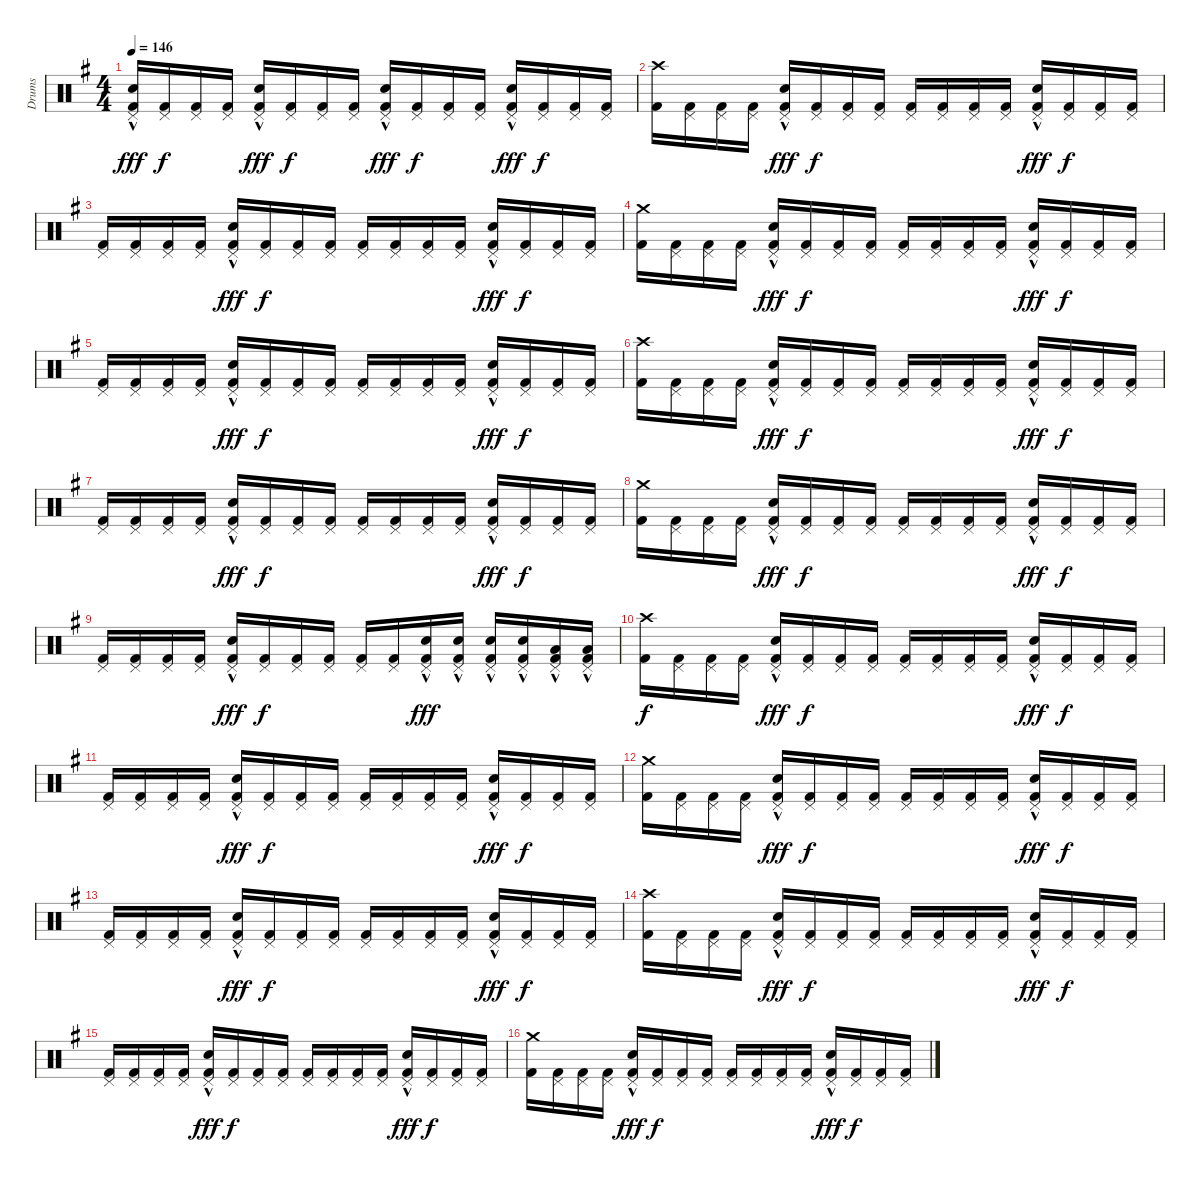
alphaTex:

\track ("Drums" "Drums") {instrument percussion}
\staff {score}
\articulation defaults
\ts (4 4)
\tempo 146
\clef neutral
\ks eminor
("Pedal Hi-Hat (hit)"{hac} "Snare (hit) 2" "Kick (hit) 2").16{dy fff} ("Pedal Hi-Hat (hit)" "Kick (hit) 2").16{dy f} ("Pedal Hi-Hat (hit)" "Kick (hit) 2").16 ("Pedal Hi-Hat (hit)" "Kick (hit) 2").16 ("Pedal Hi-Hat (hit)"{hac} "Snare (hit) 2" "Kick (hit) 2").16{dy fff} ("Pedal Hi-Hat (hit)" "Kick (hit) 2").16{dy f} ("Pedal Hi-Hat (hit)" "Kick (hit) 2").16 ("Pedal Hi-Hat (hit)" "Kick (hit) 2").16 ("Pedal Hi-Hat (hit)"{hac} "Snare (hit) 2" "Kick (hit) 2").16{dy fff} ("Pedal Hi-Hat (hit)" "Kick (hit) 2").16{dy f} ("Pedal Hi-Hat (hit)" "Kick (hit) 2").16 ("Pedal Hi-Hat (hit)" "Kick (hit) 2").16 ("Pedal Hi-Hat (hit)"{hac} "Snare (hit) 2" "Kick (hit) 2").16{dy fff} ("Pedal Hi-Hat (hit)" "Kick (hit) 2").16{dy f} ("Pedal Hi-Hat (hit)" "Kick (hit) 2").16 ("Pedal Hi-Hat (hit)" "Kick (hit) 2").16 |
("Crash high (hit)" "Kick (hit) 2").16 ("Pedal Hi-Hat (hit)" "Kick (hit) 2").16 ("Pedal Hi-Hat (hit)" "Kick (hit) 2").16 ("Pedal Hi-Hat (hit)" "Kick (hit) 2").16 ("Pedal Hi-Hat (hit)"{hac} "Snare (hit) 2" "Kick (hit) 2").16{dy fff} ("Pedal Hi-Hat (hit)" "Kick (hit) 2").16{dy f} ("Pedal Hi-Hat (hit)" "Kick (hit) 2").16 ("Pedal Hi-Hat (hit)" "Kick (hit) 2").16 ("Pedal Hi-Hat (hit)" "Kick (hit) 2").16 ("Pedal Hi-Hat (hit)" "Kick (hit) 2").16 ("Pedal Hi-Hat (hit)" "Kick (hit) 2").16 ("Pedal Hi-Hat (hit)" "Kick (hit) 2").16 ("Pedal Hi-Hat (hit)"{hac} "Snare (hit) 2" "Kick (hit) 2").16{dy fff} ("Pedal Hi-Hat (hit)" "Kick (hit) 2").16{dy f} ("Pedal Hi-Hat (hit)" "Kick (hit) 2").16 ("Pedal Hi-Hat (hit)" "Kick (hit) 2").16 |
("Pedal Hi-Hat (hit)" "Kick (hit) 2").16 ("Pedal Hi-Hat (hit)" "Kick (hit) 2").16 ("Pedal Hi-Hat (hit)" "Kick (hit) 2").16 ("Pedal Hi-Hat (hit)" "Kick (hit) 2").16 ("Pedal Hi-Hat (hit)"{hac} "Snare (hit) 2" "Kick (hit) 2").16{dy fff} ("Pedal Hi-Hat (hit)" "Kick (hit) 2").16{dy f} ("Pedal Hi-Hat (hit)" "Kick (hit) 2").16 ("Pedal Hi-Hat (hit)" "Kick (hit) 2").16 ("Pedal Hi-Hat (hit)" "Kick (hit) 2").16 ("Pedal Hi-Hat (hit)" "Kick (hit) 2").16 ("Pedal Hi-Hat (hit)" "Kick (hit) 2").16 ("Pedal Hi-Hat (hit)" "Kick (hit) 2").16 ("Pedal Hi-Hat (hit)"{hac} "Snare (hit) 2" "Kick (hit) 2").16{dy fff} ("Pedal Hi-Hat (hit)" "Kick (hit) 2").16{dy f} ("Pedal Hi-Hat (hit)" "Kick (hit) 2").16 ("Pedal Hi-Hat (hit)" "Kick (hit) 2").16 |
("Crash medium (hit)" "Kick (hit) 2").16 ("Pedal Hi-Hat (hit)" "Kick (hit) 2").16 ("Pedal Hi-Hat (hit)" "Kick (hit) 2").16 ("Pedal Hi-Hat (hit)" "Kick (hit) 2").16 ("Pedal Hi-Hat (hit)"{hac} "Snare (hit) 2" "Kick (hit) 2").16{dy fff} ("Pedal Hi-Hat (hit)" "Kick (hit) 2").16{dy f} ("Pedal Hi-Hat (hit)" "Kick (hit) 2").16 ("Pedal Hi-Hat (hit)" "Kick (hit) 2").16 ("Pedal Hi-Hat (hit)" "Kick (hit) 2").16 ("Pedal Hi-Hat (hit)" "Kick (hit) 2").16 ("Pedal Hi-Hat (hit)" "Kick (hit) 2").16 ("Pedal Hi-Hat (hit)" "Kick (hit) 2").16 ("Pedal Hi-Hat (hit)"{hac} "Snare (hit) 2" "Kick (hit) 2").16{dy fff} ("Pedal Hi-Hat (hit)" "Kick (hit) 2").16{dy f} ("Pedal Hi-Hat (hit)" "Kick (hit) 2").16 ("Pedal Hi-Hat (hit)" "Kick (hit) 2").16 |
("Pedal Hi-Hat (hit)" "Kick (hit) 2").16 ("Pedal Hi-Hat (hit)" "Kick (hit) 2").16 ("Pedal Hi-Hat (hit)" "Kick (hit) 2").16 ("Pedal Hi-Hat (hit)" "Kick (hit) 2").16 ("Pedal Hi-Hat (hit)"{hac} "Snare (hit) 2" "Kick (hit) 2").16{dy fff} ("Pedal Hi-Hat (hit)" "Kick (hit) 2").16{dy f} ("Pedal Hi-Hat (hit)" "Kick (hit) 2").16 ("Pedal Hi-Hat (hit)" "Kick (hit) 2").16 ("Pedal Hi-Hat (hit)" "Kick (hit) 2").16 ("Pedal Hi-Hat (hit)" "Kick (hit) 2").16 ("Pedal Hi-Hat (hit)" "Kick (hit) 2").16 ("Pedal Hi-Hat (hit)" "Kick (hit) 2").16 ("Pedal Hi-Hat (hit)"{hac} "Snare (hit) 2" "Kick (hit) 2").16{dy fff} ("Pedal Hi-Hat (hit)" "Kick (hit) 2").16{dy f} ("Pedal Hi-Hat (hit)" "Kick (hit) 2").16 ("Pedal Hi-Hat (hit)" "Kick (hit) 2").16 |
("Crash high (hit)" "Kick (hit) 2").16 ("Pedal Hi-Hat (hit)" "Kick (hit) 2").16 ("Pedal Hi-Hat (hit)" "Kick (hit) 2").16 ("Pedal Hi-Hat (hit)" "Kick (hit) 2").16 ("Pedal Hi-Hat (hit)"{hac} "Snare (hit) 2" "Kick (hit) 2").16{dy fff} ("Pedal Hi-Hat (hit)" "Kick (hit) 2").16{dy f} ("Pedal Hi-Hat (hit)" "Kick (hit) 2").16 ("Pedal Hi-Hat (hit)" "Kick (hit) 2").16 ("Pedal Hi-Hat (hit)" "Kick (hit) 2").16 ("Pedal Hi-Hat (hit)" "Kick (hit) 2").16 ("Pedal Hi-Hat (hit)" "Kick (hit) 2").16 ("Pedal Hi-Hat (hit)" "Kick (hit) 2").16 ("Pedal Hi-Hat (hit)"{hac} "Snare (hit) 2" "Kick (hit) 2").16{dy fff} ("Pedal Hi-Hat (hit)" "Kick (hit) 2").16{dy f} ("Pedal Hi-Hat (hit)" "Kick (hit) 2").16 ("Pedal Hi-Hat (hit)" "Kick (hit) 2").16 |
("Pedal Hi-Hat (hit)" "Kick (hit) 2").16 ("Pedal Hi-Hat (hit)" "Kick (hit) 2").16 ("Pedal Hi-Hat (hit)" "Kick (hit) 2").16 ("Pedal Hi-Hat (hit)" "Kick (hit) 2").16 ("Pedal Hi-Hat (hit)"{hac} "Snare (hit) 2" "Kick (hit) 2").16{dy fff} ("Pedal Hi-Hat (hit)" "Kick (hit) 2").16{dy f} ("Pedal Hi-Hat (hit)" "Kick (hit) 2").16 ("Pedal Hi-Hat (hit)" "Kick (hit) 2").16 ("Pedal Hi-Hat (hit)" "Kick (hit) 2").16 ("Pedal Hi-Hat (hit)" "Kick (hit) 2").16 ("Pedal Hi-Hat (hit)" "Kick (hit) 2").16 ("Pedal Hi-Hat (hit)" "Kick (hit) 2").16 ("Pedal Hi-Hat (hit)"{hac} "Snare (hit) 2" "Kick (hit) 2").16{dy fff} ("Pedal Hi-Hat (hit)" "Kick (hit) 2").16{dy f} ("Pedal Hi-Hat (hit)" "Kick (hit) 2").16 ("Pedal Hi-Hat (hit)" "Kick (hit) 2").16 |
("Crash medium (hit)" "Kick (hit) 2").16 ("Pedal Hi-Hat (hit)" "Kick (hit) 2").16 ("Pedal Hi-Hat (hit)" "Kick (hit) 2").16 ("Pedal Hi-Hat (hit)" "Kick (hit) 2").16 ("Pedal Hi-Hat (hit)"{hac} "Snare (hit) 2" "Kick (hit) 2").16{dy fff} ("Pedal Hi-Hat (hit)" "Kick (hit) 2").16{dy f} ("Pedal Hi-Hat (hit)" "Kick (hit) 2").16 ("Pedal Hi-Hat (hit)" "Kick (hit) 2").16 ("Pedal Hi-Hat (hit)" "Kick (hit) 2").16 ("Pedal Hi-Hat (hit)" "Kick (hit) 2").16 ("Pedal Hi-Hat (hit)" "Kick (hit) 2").16 ("Pedal Hi-Hat (hit)" "Kick (hit) 2").16 ("Pedal Hi-Hat (hit)"{hac} "Snare (hit) 2" "Kick (hit) 2").16{dy fff} ("Pedal Hi-Hat (hit)" "Kick (hit) 2").16{dy f} ("Pedal Hi-Hat (hit)" "Kick (hit) 2").16 ("Pedal Hi-Hat (hit)" "Kick (hit) 2").16 |
("Pedal Hi-Hat (hit)" "Kick (hit) 2").16 ("Pedal Hi-Hat (hit)" "Kick (hit) 2").16 ("Pedal Hi-Hat (hit)" "Kick (hit) 2").16 ("Pedal Hi-Hat (hit)" "Kick (hit) 2").16 ("Pedal Hi-Hat (hit)"{hac} "Snare (hit) 2" "Kick (hit) 2").16{dy fff} ("Pedal Hi-Hat (hit)" "Kick (hit) 2").16{dy f} ("Pedal Hi-Hat (hit)" "Kick (hit) 2").16 ("Pedal Hi-Hat (hit)" "Kick (hit) 2").16 ("Pedal Hi-Hat (hit)" "Kick (hit) 2").16 ("Pedal Hi-Hat (hit)" "Kick (hit) 2").16 ("Pedal Hi-Hat (hit)" "Snare (hit) 2"{hac} "Kick (hit) 2").16{dy fff} ("Pedal Hi-Hat (hit)" "Snare (hit) 2"{hac} "Kick (hit) 2").16 ("Pedal Hi-Hat (hit)"{hac} "Snare (hit) 2"{hac} "Kick (hit) 2").16 ("Pedal Hi-Hat (hit)" "Snare (hit) 2"{hac} "Kick (hit) 2").16 ("Pedal Hi-Hat (hit)" "Low Floor Tom (hit)"{hac} "Kick (hit) 2").16 ("Pedal Hi-Hat (hit)" "Low Floor Tom (hit)"{hac} "Kick (hit) 2").16 |
("Crash high (hit)" "Kick (hit) 2").16{dy f} ("Pedal Hi-Hat (hit)" "Kick (hit) 2").16 ("Pedal Hi-Hat (hit)" "Kick (hit) 2").16 ("Pedal Hi-Hat (hit)" "Kick (hit) 2").16 ("Pedal Hi-Hat (hit)"{hac} "Snare (hit) 2" "Kick (hit) 2").16{dy fff} ("Pedal Hi-Hat (hit)" "Kick (hit) 2").16{dy f} ("Pedal Hi-Hat (hit)" "Kick (hit) 2").16 ("Pedal Hi-Hat (hit)" "Kick (hit) 2").16 ("Pedal Hi-Hat (hit)" "Kick (hit) 2").16 ("Pedal Hi-Hat (hit)" "Kick (hit) 2").16 ("Pedal Hi-Hat (hit)" "Kick (hit) 2").16 ("Pedal Hi-Hat (hit)" "Kick (hit) 2").16 ("Pedal Hi-Hat (hit)"{hac} "Snare (hit) 2" "Kick (hit) 2").16{dy fff} ("Pedal Hi-Hat (hit)" "Kick (hit) 2").16{dy f} ("Pedal Hi-Hat (hit)" "Kick (hit) 2").16 ("Pedal Hi-Hat (hit)" "Kick (hit) 2").16 |
("Pedal Hi-Hat (hit)" "Kick (hit) 2").16 ("Pedal Hi-Hat (hit)" "Kick (hit) 2").16 ("Pedal Hi-Hat (hit)" "Kick (hit) 2").16 ("Pedal Hi-Hat (hit)" "Kick (hit) 2").16 ("Pedal Hi-Hat (hit)"{hac} "Snare (hit) 2" "Kick (hit) 2").16{dy fff} ("Pedal Hi-Hat (hit)" "Kick (hit) 2").16{dy f} ("Pedal Hi-Hat (hit)" "Kick (hit) 2").16 ("Pedal Hi-Hat (hit)" "Kick (hit) 2").16 ("Pedal Hi-Hat (hit)" "Kick (hit) 2").16 ("Pedal Hi-Hat (hit)" "Kick (hit) 2").16 ("Pedal Hi-Hat (hit)" "Kick (hit) 2").16 ("Pedal Hi-Hat (hit)" "Kick (hit) 2").16 ("Pedal Hi-Hat (hit)"{hac} "Snare (hit) 2" "Kick (hit) 2").16{dy fff} ("Pedal Hi-Hat (hit)" "Kick (hit) 2").16{dy f} ("Pedal Hi-Hat (hit)" "Kick (hit) 2").16 ("Pedal Hi-Hat (hit)" "Kick (hit) 2").16 |
("Crash medium (hit)" "Kick (hit) 2").16 ("Pedal Hi-Hat (hit)" "Kick (hit) 2").16 ("Pedal Hi-Hat (hit)" "Kick (hit) 2").16 ("Pedal Hi-Hat (hit)" "Kick (hit) 2").16 ("Pedal Hi-Hat (hit)"{hac} "Snare (hit) 2" "Kick (hit) 2").16{dy fff} ("Pedal Hi-Hat (hit)" "Kick (hit) 2").16{dy f} ("Pedal Hi-Hat (hit)" "Kick (hit) 2").16 ("Pedal Hi-Hat (hit)" "Kick (hit) 2").16 ("Pedal Hi-Hat (hit)" "Kick (hit) 2").16 ("Pedal Hi-Hat (hit)" "Kick (hit) 2").16 ("Pedal Hi-Hat (hit)" "Kick (hit) 2").16 ("Pedal Hi-Hat (hit)" "Kick (hit) 2").16 ("Pedal Hi-Hat (hit)"{hac} "Snare (hit) 2" "Kick (hit) 2").16{dy fff} ("Pedal Hi-Hat (hit)" "Kick (hit) 2").16{dy f} ("Pedal Hi-Hat (hit)" "Kick (hit) 2").16 ("Pedal Hi-Hat (hit)" "Kick (hit) 2").16 |
("Pedal Hi-Hat (hit)" "Kick (hit) 2").16 ("Pedal Hi-Hat (hit)" "Kick (hit) 2").16 ("Pedal Hi-Hat (hit)" "Kick (hit) 2").16 ("Pedal Hi-Hat (hit)" "Kick (hit) 2").16 ("Pedal Hi-Hat (hit)"{hac} "Snare (hit) 2" "Kick (hit) 2").16{dy fff} ("Pedal Hi-Hat (hit)" "Kick (hit) 2").16{dy f} ("Pedal Hi-Hat (hit)" "Kick (hit) 2").16 ("Pedal Hi-Hat (hit)" "Kick (hit) 2").16 ("Pedal Hi-Hat (hit)" "Kick (hit) 2").16 ("Pedal Hi-Hat (hit)" "Kick (hit) 2").16 ("Pedal Hi-Hat (hit)" "Kick (hit) 2").16 ("Pedal Hi-Hat (hit)" "Kick (hit) 2").16 ("Pedal Hi-Hat (hit)"{hac} "Snare (hit) 2" "Kick (hit) 2").16{dy fff} ("Pedal Hi-Hat (hit)" "Kick (hit) 2").16{dy f} ("Pedal Hi-Hat (hit)" "Kick (hit) 2").16 ("Pedal Hi-Hat (hit)" "Kick (hit) 2").16 |
("Crash high (hit)" "Kick (hit) 2").16 ("Pedal Hi-Hat (hit)" "Kick (hit) 2").16 ("Pedal Hi-Hat (hit)" "Kick (hit) 2").16 ("Pedal Hi-Hat (hit)" "Kick (hit) 2").16 ("Pedal Hi-Hat (hit)"{hac} "Snare (hit) 2" "Kick (hit) 2").16{dy fff} ("Pedal Hi-Hat (hit)" "Kick (hit) 2").16{dy f} ("Pedal Hi-Hat (hit)" "Kick (hit) 2").16 ("Pedal Hi-Hat (hit)" "Kick (hit) 2").16 ("Pedal Hi-Hat (hit)" "Kick (hit) 2").16 ("Pedal Hi-Hat (hit)" "Kick (hit) 2").16 ("Pedal Hi-Hat (hit)" "Kick (hit) 2").16 ("Pedal Hi-Hat (hit)" "Kick (hit) 2").16 ("Pedal Hi-Hat (hit)"{hac} "Snare (hit) 2" "Kick (hit) 2").16{dy fff} ("Pedal Hi-Hat (hit)" "Kick (hit) 2").16{dy f} ("Pedal Hi-Hat (hit)" "Kick (hit) 2").16 ("Pedal Hi-Hat (hit)" "Kick (hit) 2").16 |
("Pedal Hi-Hat (hit)" "Kick (hit) 2").16 ("Pedal Hi-Hat (hit)" "Kick (hit) 2").16 ("Pedal Hi-Hat (hit)" "Kick (hit) 2").16 ("Pedal Hi-Hat (hit)" "Kick (hit) 2").16 ("Pedal Hi-Hat (hit)"{hac} "Snare (hit) 2" "Kick (hit) 2").16{dy fff} ("Pedal Hi-Hat (hit)" "Kick (hit) 2").16{dy f} ("Pedal Hi-Hat (hit)" "Kick (hit) 2").16 ("Pedal Hi-Hat (hit)" "Kick (hit) 2").16 ("Pedal Hi-Hat (hit)" "Kick (hit) 2").16 ("Pedal Hi-Hat (hit)" "Kick (hit) 2").16 ("Pedal Hi-Hat (hit)" "Kick (hit) 2").16 ("Pedal Hi-Hat (hit)" "Kick (hit) 2").16 ("Pedal Hi-Hat (hit)"{hac} "Snare (hit) 2" "Kick (hit) 2").16{dy fff} ("Pedal Hi-Hat (hit)" "Kick (hit) 2").16{dy f} ("Pedal Hi-Hat (hit)" "Kick (hit) 2").16 ("Pedal Hi-Hat (hit)" "Kick (hit) 2").16 |
("Crash medium (hit)" "Kick (hit) 2").16 ("Pedal Hi-Hat (hit)" "Kick (hit) 2").16 ("Pedal Hi-Hat (hit)" "Kick (hit) 2").16 ("Pedal Hi-Hat (hit)" "Kick (hit) 2").16 ("Pedal Hi-Hat (hit)"{hac} "Snare (hit) 2" "Kick (hit) 2").16{dy fff} ("Pedal Hi-Hat (hit)" "Kick (hit) 2").16{dy f} ("Pedal Hi-Hat (hit)" "Kick (hit) 2").16 ("Pedal Hi-Hat (hit)" "Kick (hit) 2").16 ("Pedal Hi-Hat (hit)" "Kick (hit) 2").16 ("Pedal Hi-Hat (hit)" "Kick (hit) 2").16 ("Pedal Hi-Hat (hit)" "Kick (hit) 2").16 ("Pedal Hi-Hat (hit)" "Kick (hit) 2").16 ("Pedal Hi-Hat (hit)"{hac} "Snare (hit) 2" "Kick (hit) 2").16{dy fff} ("Pedal Hi-Hat (hit)" "Kick (hit) 2").16{dy f} ("Pedal Hi-Hat (hit)" "Kick (hit) 2").16 ("Pedal Hi-Hat (hit)" "Kick (hit) 2").16
